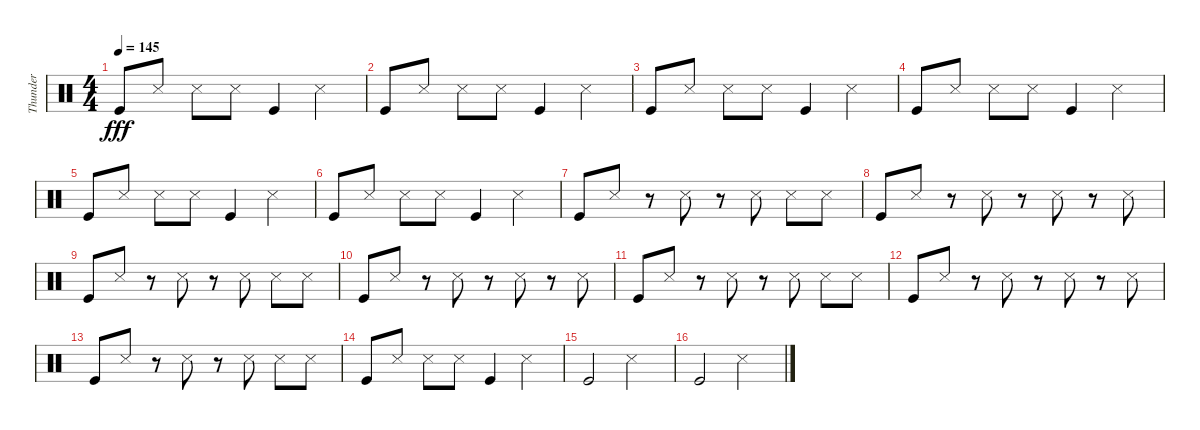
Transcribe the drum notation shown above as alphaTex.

\track ("Thunder" "Thunder") {instrument percussion}
\staff {score}
\articulation defaults
\ts (4 4)
\tempo 145
\clef neutral
\ks c "Kick (hit)".8{dy fff} "Snare (side stick) 3".8 "Snare (side stick) 3".8 "Snare (side stick) 3".8 "Kick (hit)".4 "Snare (side stick) 3".4
|
"Kick (hit)".8 "Snare (side stick) 3".8 "Snare (side stick) 3".8 "Snare (side stick) 3".8 "Kick (hit)".4 "Snare (side stick) 3".4 |
"Kick (hit)".8 "Snare (side stick) 3".8 "Snare (side stick) 3".8 "Snare (side stick) 3".8 "Kick (hit)".4 "Snare (side stick) 3".4 |
"Kick (hit)".8 "Snare (side stick) 3".8 "Snare (side stick) 3".8 "Snare (side stick) 3".8 "Kick (hit)".4 "Snare (side stick) 3".4 |
"Kick (hit)".8 "Snare (side stick) 3".8 "Snare (side stick) 3".8 "Snare (side stick) 3".8 "Kick (hit)".4 "Snare (side stick) 3".4 |
"Kick (hit)".8 "Snare (side stick) 3".8 "Snare (side stick) 3".8 "Snare (side stick) 3".8 "Kick (hit)".4 "Snare (side stick) 3".4 |
"Kick (hit)".8 "Snare (side stick) 3".8 r.8 "Snare (side stick) 3".8 r.8 "Snare (side stick) 3".8 "Snare (side stick) 3".8 "Snare (side stick) 3".8 |
"Kick (hit)".8 "Snare (side stick) 3".8 r.8 "Snare (side stick) 3".8 r.8 "Snare (side stick) 3".8 r.8 "Snare (side stick) 3".8 |
"Kick (hit)".8 "Snare (side stick) 3".8 r.8 "Snare (side stick) 3".8 r.8 "Snare (side stick) 3".8 "Snare (side stick) 3".8 "Snare (side stick) 3".8 |
"Kick (hit)".8 "Snare (side stick) 3".8 r.8 "Snare (side stick) 3".8 r.8 "Snare (side stick) 3".8 r.8 "Snare (side stick) 3".8 |
"Kick (hit)".8 "Snare (side stick) 3".8 r.8 "Snare (side stick) 3".8 r.8 "Snare (side stick) 3".8 "Snare (side stick) 3".8 "Snare (side stick) 3".8 |
"Kick (hit)".8 "Snare (side stick) 3".8 r.8 "Snare (side stick) 3".8 r.8 "Snare (side stick) 3".8 r.8 "Snare (side stick) 3".8 |
"Kick (hit)".8 "Snare (side stick) 3".8 r.8 "Snare (side stick) 3".8 r.8 "Snare (side stick) 3".8 "Snare (side stick) 3".8 "Snare (side stick) 3".8 |
"Kick (hit)".8 "Snare (side stick) 3".8 "Snare (side stick) 3".8 "Snare (side stick) 3".8 "Kick (hit)".4 "Snare (side stick) 3".4 |
"Kick (hit)".2 "Snare (side stick) 3".2 |
"Kick (hit)".2 "Snare (side stick) 3".2
